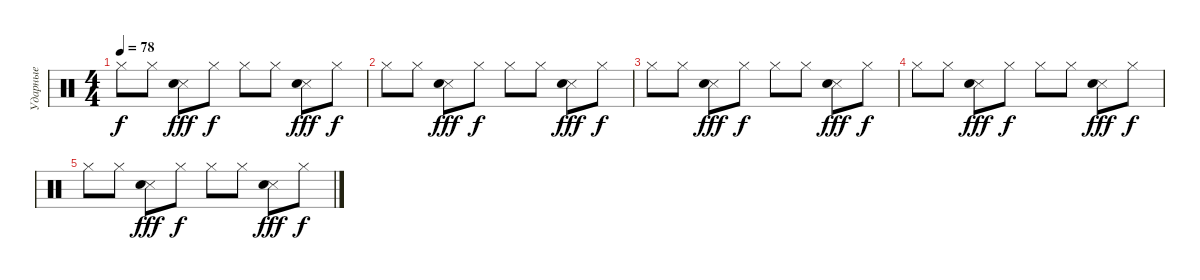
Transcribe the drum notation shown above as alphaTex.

\track ("Ударные" "Ударные") {instrument percussion}
\staff {score}
\articulation defaults
\ts (4 4)
\tempo 78
\clef neutral
\ks c "Hi-Hat (closed)".8{dy f} "Hi-Hat (closed)".8
("Snare (side stick) 3" "Electric Snare (hit)").8{dy fff} "Hi-Hat (closed)".8{dy f} "Hi-Hat (closed)".8 "Hi-Hat (closed)".8 ("Snare (side stick) 3" "Electric Snare (hit)").8{dy fff} "Hi-Hat (closed)".8{dy f} |
"Hi-Hat (closed)".8 "Hi-Hat (closed)".8 ("Snare (side stick) 3" "Electric Snare (hit)").8{dy fff} "Hi-Hat (closed)".8{dy f} "Hi-Hat (closed)".8 "Hi-Hat (closed)".8 ("Snare (side stick) 3" "Electric Snare (hit)").8{dy fff} "Hi-Hat (closed)".8{dy f} |
"Hi-Hat (closed)".8 "Hi-Hat (closed)".8 ("Snare (side stick) 3" "Electric Snare (hit)").8{dy fff} "Hi-Hat (closed)".8{dy f} "Hi-Hat (closed)".8 "Hi-Hat (closed)".8 ("Snare (side stick) 3" "Electric Snare (hit)").8{dy fff} "Hi-Hat (closed)".8{dy f} |
"Hi-Hat (closed)".8 "Hi-Hat (closed)".8 ("Snare (side stick) 3" "Electric Snare (hit)").8{dy fff} "Hi-Hat (closed)".8{dy f} "Hi-Hat (closed)".8 "Hi-Hat (closed)".8 ("Snare (side stick) 3" "Electric Snare (hit)").8{dy fff} "Hi-Hat (closed)".8{dy f} |
"Hi-Hat (closed)".8 "Hi-Hat (closed)".8 ("Snare (side stick) 3" "Electric Snare (hit)").8{dy fff} "Hi-Hat (closed)".8{dy f} "Hi-Hat (closed)".8 "Hi-Hat (closed)".8 ("Snare (side stick) 3" "Electric Snare (hit)").8{dy fff} "Hi-Hat (closed)".8{dy f}
